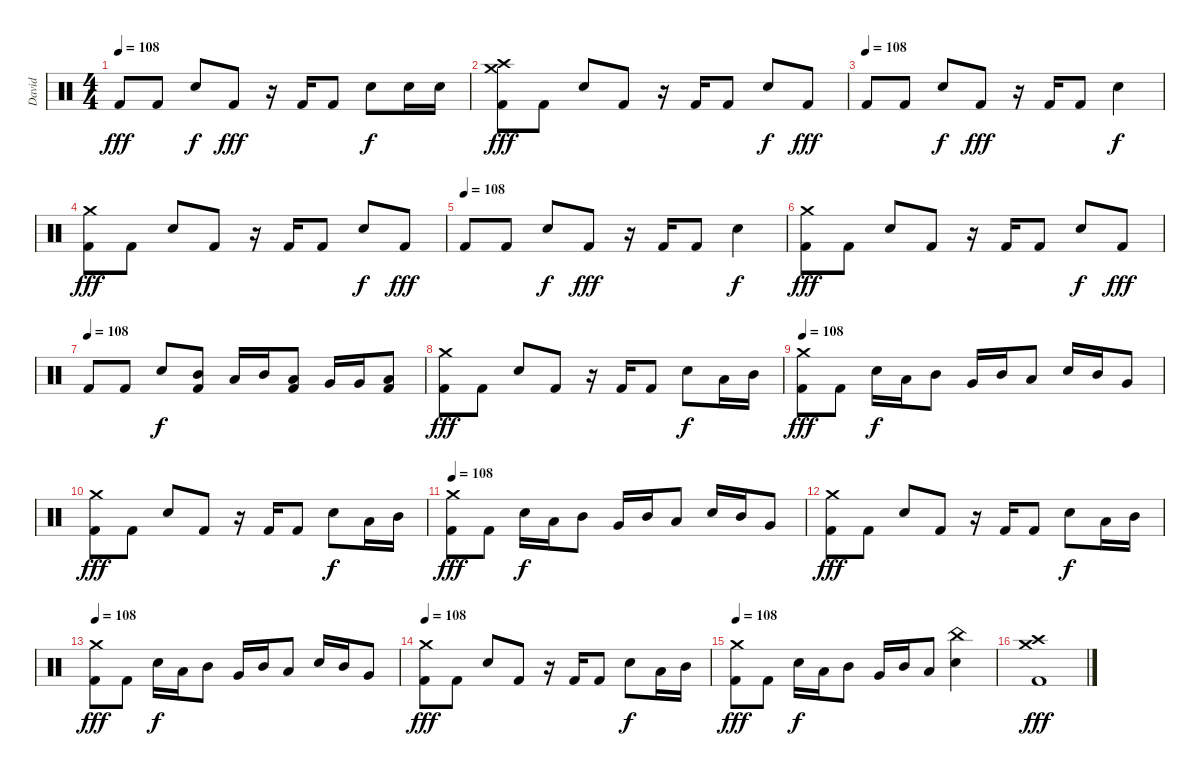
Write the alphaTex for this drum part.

\track ("David" "David") {instrument percussion}
\staff {score}
\articulation defaults
\ts (4 4)
\tempo 108
\clef neutral
\ks c "Kick (hit) 2".8{dy fff} "Kick (hit) 2".8 "Snare (hit) 2".8{dy f} "Kick (hit) 2".8{dy fff}
r.16 "Kick (hit) 2".16 "Kick (hit) 2".8 "Snare (hit) 2".8{dy f} "Snare (hit) 2".16 "Snare (hit) 2".16 |
("Crash medium (hit)" "Crash high (hit)" "Kick (hit) 2").8{dy fff} "Kick (hit) 2".8 "Snare (hit) 2".8 "Kick (hit) 2".8 r.16 "Kick (hit) 2".16 "Kick (hit) 2".8 "Snare (hit) 2".8{dy f} "Kick (hit) 2".8{dy fff} |
\tempo (108)
"Kick (hit) 2".8 "Kick (hit) 2".8 "Snare (hit) 2".8{dy f} "Kick (hit) 2".8{dy fff} r.16 "Kick (hit) 2".16 "Kick (hit) 2".8 "Snare (hit) 2".4{dy f} |
("Crash medium (hit)" "Kick (hit) 2").8{dy fff} "Kick (hit) 2".8 "Snare (hit) 2".8 "Kick (hit) 2".8 r.16 "Kick (hit) 2".16 "Kick (hit) 2".8 "Snare (hit) 2".8{dy f} "Kick (hit) 2".8{dy fff} |
\tempo (108)
"Kick (hit) 2".8 "Kick (hit) 2".8 "Snare (hit) 2".8{dy f} "Kick (hit) 2".8{dy fff} r.16 "Kick (hit) 2".16 "Kick (hit) 2".8 "Snare (hit) 2".4{dy f} |
("Crash medium (hit)" "Kick (hit) 2").8{dy fff} "Kick (hit) 2".8 "Snare (hit) 2".8 "Kick (hit) 2".8 r.16 "Kick (hit) 2".16 "Kick (hit) 2".8 "Snare (hit) 2".8{dy f} "Kick (hit) 2".8{dy fff} |
\tempo (108)
"Kick (hit) 2".8 "Kick (hit) 2".8 "Snare (hit) 2".8{dy f} ("Mid Tom (hit)" "Kick (hit) 2").8 "Low Tom (hit)".16 "Mid Tom (hit)".16 ("Low Tom (hit)" "Kick (hit) 2").8 "Very Low Tom (hit)".16 "Very Low Tom (hit)".16 ("Low Floor Tom (hit)" "Kick (hit) 2").8 |
("Crash medium (hit)" "Kick (hit) 2").8{dy fff} "Kick (hit) 2".8 "Snare (hit) 2".8 "Kick (hit) 2".8 r.16 "Kick (hit) 2".16 "Kick (hit) 2".8 "Snare (hit) 2".8{dy f} "Low Tom (hit)".16 "Mid Tom (hit)".16 |
\tempo 108
("Crash medium (hit)" "Kick (hit) 2").8{dy fff} "Kick (hit) 2".8 "Snare (hit) 2".16{dy f} "Low Tom (hit)".16 "Mid Tom (hit)".8 "Very Low Tom (hit)".16 "Mid Tom (hit)".16 "Low Tom (hit)".8 "Snare (hit) 2".16 "Mid Tom (hit)".16 "Very Low Tom (hit)".8 |
("Crash medium (hit)" "Kick (hit) 2").8{dy fff} "Kick (hit) 2".8 "Snare (hit) 2".8 "Kick (hit) 2".8 r.16 "Kick (hit) 2".16 "Kick (hit) 2".8 "Snare (hit) 2".8{dy f} "Low Tom (hit)".16 "Mid Tom (hit)".16 |
\tempo 108
("Crash medium (hit)" "Kick (hit) 2").8{dy fff} "Kick (hit) 2".8 "Snare (hit) 2".16{dy f} "Low Tom (hit)".16 "Mid Tom (hit)".8 "Very Low Tom (hit)".16 "Mid Tom (hit)".16 "Low Tom (hit)".8 "Snare (hit) 2".16 "Mid Tom (hit)".16 "Very Low Tom (hit)".8 |
("Crash medium (hit)" "Kick (hit) 2").8{dy fff} "Kick (hit) 2".8 "Snare (hit) 2".8 "Kick (hit) 2".8 r.16 "Kick (hit) 2".16 "Kick (hit) 2".8 "Snare (hit) 2".8{dy f} "Low Tom (hit)".16 "Mid Tom (hit)".16 |
\tempo 108
("Crash medium (hit)" "Kick (hit) 2").8{dy fff} "Kick (hit) 2".8 "Snare (hit) 2".16{dy f} "Low Tom (hit)".16 "Mid Tom (hit)".8 "Very Low Tom (hit)".16 "Mid Tom (hit)".16 "Low Tom (hit)".8 "Snare (hit) 2".16 "Mid Tom (hit)".16 "Very Low Tom (hit)".8 |
\tempo 108
("Crash medium (hit)" "Kick (hit) 2").8{dy fff} "Kick (hit) 2".8 "Snare (hit) 2".8 "Kick (hit) 2".8 r.16 "Kick (hit) 2".16 "Kick (hit) 2".8 "Snare (hit) 2".8{dy f} "Low Tom (hit)".16 "Mid Tom (hit)".16 |
\tempo 108
("Crash medium (hit)" "Kick (hit) 2").8{dy fff} "Kick (hit) 2".8 "Snare (hit) 2".16{dy f} "Low Tom (hit)".16 "Mid Tom (hit)".8 "Very Low Tom (hit)".16 "Mid Tom (hit)".16 "Low Tom (hit)".8 ("China (hit)" "Snare (hit) 2").4 |
("Crash medium (hit)" "Crash high (hit)" "Kick (hit) 2").1{dy fff}
